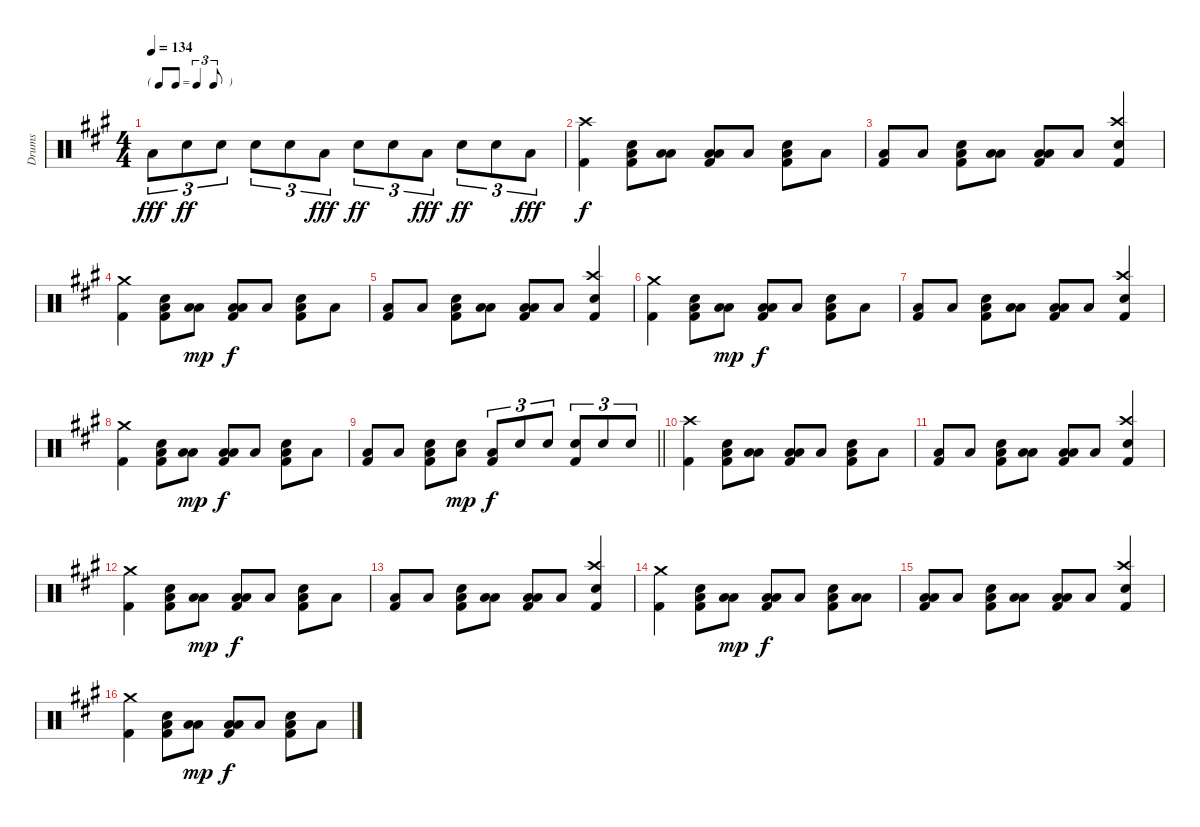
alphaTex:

\track ("Drums" "Drums") {instrument percussion}
\staff {score}
\articulation defaults
\ts (4 4)
\tf triplet8th
\tempo 134
\clef neutral
\ks f#minor "Low Tom (hit)".8{tu (3 2) dy fff} "Electric Snare (hit)".8{tu (3 2) dy ff} "Electric Snare (hit)".8{tu (3 2)} "Electric Snare (hit)".8{tu (3 2)} "Electric Snare (hit)".8{tu (3 2)} "Low Tom (hit)".8{tu (3 2) dy fff} "Electric Snare (hit)".8{tu (3 2) dy ff} "Electric Snare (hit)".8{tu (3 2)} "Low Tom (hit)".8{tu (3 2) dy fff} "Electric Snare (hit)".8{tu (3 2) dy ff} "Electric Snare (hit)".8{tu (3 2)} "Low Tom (hit)".8{tu (3 2) dy fff}
|
("Crash high (hit)" "Kick (hit) 2").4{dy f} ("Electric Snare (hit)" "Low Floor Tom (hit)" "Kick (hit) 2").8 ("Low Tom (hit)" "Low Floor Tom (hit)").8 ("Low Tom (hit)" "Low Floor Tom (hit)" "Kick (hit) 2").8 "Low Floor Tom (hit)".8 ("Electric Snare (hit)" "Low Floor Tom (hit)" "Kick (hit) 2").8 "Low Floor Tom (hit)".8 |
("Low Floor Tom (hit)" "Kick (hit) 2").8 "Low Floor Tom (hit)".8 ("Electric Snare (hit)" "Low Floor Tom (hit)" "Kick (hit) 2").8 ("Low Tom (hit)" "Low Floor Tom (hit)").8 ("Low Tom (hit)" "Low Floor Tom (hit)" "Kick (hit) 2").8 "Low Floor Tom (hit)".8 ("Crash high (hit)" "Electric Snare (hit)" "Kick (hit) 2").4 |
("Crash medium (hit)" "Kick (hit) 2").4 ("Electric Snare (hit)" "Low Floor Tom (hit)" "Kick (hit) 2").8 ("Low Tom (hit)" "Low Floor Tom (hit)").8{dy mp} ("Low Tom (hit)" "Low Floor Tom (hit)" "Kick (hit) 2").8{dy f} "Low Floor Tom (hit)".8 ("Electric Snare (hit)" "Low Floor Tom (hit)" "Kick (hit) 2").8 "Low Floor Tom (hit)".8 |
("Low Floor Tom (hit)" "Kick (hit) 2").8 "Low Floor Tom (hit)".8 ("Electric Snare (hit)" "Low Floor Tom (hit)" "Kick (hit) 2").8 ("Low Tom (hit)" "Low Floor Tom (hit)").8 ("Low Tom (hit)" "Low Floor Tom (hit)" "Kick (hit) 2").8 "Low Floor Tom (hit)".8 ("Crash high (hit)" "Electric Snare (hit)" "Kick (hit) 2").4 |
("Crash medium (hit)" "Kick (hit) 2").4 ("Electric Snare (hit)" "Low Floor Tom (hit)" "Kick (hit) 2").8 ("Low Tom (hit)" "Low Floor Tom (hit)").8{dy mp} ("Low Tom (hit)" "Low Floor Tom (hit)" "Kick (hit) 2").8{dy f} "Low Floor Tom (hit)".8 ("Electric Snare (hit)" "Low Floor Tom (hit)" "Kick (hit) 2").8 "Low Floor Tom (hit)".8 |
("Low Floor Tom (hit)" "Kick (hit) 2").8 "Low Floor Tom (hit)".8 ("Electric Snare (hit)" "Low Floor Tom (hit)" "Kick (hit) 2").8 ("Low Tom (hit)" "Low Floor Tom (hit)").8 ("Low Tom (hit)" "Low Floor Tom (hit)" "Kick (hit) 2").8 "Low Floor Tom (hit)".8 ("Crash high (hit)" "Electric Snare (hit)" "Kick (hit) 2").4 |
("Crash medium (hit)" "Kick (hit) 2").4 ("Electric Snare (hit)" "Low Floor Tom (hit)" "Kick (hit) 2").8 ("Low Tom (hit)" "Low Floor Tom (hit)").8{dy mp} ("Low Tom (hit)" "Low Floor Tom (hit)" "Kick (hit) 2").8{dy f} "Low Floor Tom (hit)".8 ("Electric Snare (hit)" "Low Floor Tom (hit)" "Kick (hit) 2").8 "Low Floor Tom (hit)".8 |
\barLineRight lightlight
("Low Floor Tom (hit)" "Kick (hit) 2").8 "Low Floor Tom (hit)".8 ("Electric Snare (hit)" "Low Floor Tom (hit)" "Kick (hit) 2").8 ("Electric Snare (hit)" "Low Floor Tom (hit)").8{dy mp} ("Low Floor Tom (hit)" "Kick (hit) 2").8{tu (3 2) dy f} "Electric Snare (hit)".8{tu (3 2)} "Electric Snare (hit)".8{tu (3 2)} ("Electric Snare (hit)" "Kick (hit) 2").8{tu (3 2)} "Electric Snare (hit)".8{tu (3 2)} "Electric Snare (hit)".8{tu (3 2)} |
("Crash high (hit)" "Kick (hit) 2").4 ("Electric Snare (hit)" "Low Floor Tom (hit)" "Kick (hit) 2").8 ("Low Tom (hit)" "Low Floor Tom (hit)").8 ("Low Tom (hit)" "Low Floor Tom (hit)" "Kick (hit) 2").8 "Low Floor Tom (hit)".8 ("Electric Snare (hit)" "Low Floor Tom (hit)" "Kick (hit) 2").8 "Low Floor Tom (hit)".8 |
("Low Floor Tom (hit)" "Kick (hit) 2").8 "Low Floor Tom (hit)".8 ("Electric Snare (hit)" "Low Floor Tom (hit)" "Kick (hit) 2").8 ("Low Tom (hit)" "Low Floor Tom (hit)").8 ("Low Tom (hit)" "Low Floor Tom (hit)" "Kick (hit) 2").8 "Low Floor Tom (hit)".8 ("Crash high (hit)" "Electric Snare (hit)" "Kick (hit) 2").4 |
("Crash medium (hit)" "Kick (hit) 2").4 ("Electric Snare (hit)" "Low Floor Tom (hit)" "Kick (hit) 2").8 ("Low Tom (hit)" "Low Floor Tom (hit)").8{dy mp} ("Low Tom (hit)" "Low Floor Tom (hit)" "Kick (hit) 2").8{dy f} "Low Floor Tom (hit)".8 ("Electric Snare (hit)" "Low Floor Tom (hit)" "Kick (hit) 2").8 "Low Floor Tom (hit)".8 |
("Low Floor Tom (hit)" "Kick (hit) 2").8 "Low Floor Tom (hit)".8 ("Electric Snare (hit)" "Low Floor Tom (hit)" "Kick (hit) 2").8 ("Low Tom (hit)" "Low Floor Tom (hit)").8 ("Low Tom (hit)" "Low Floor Tom (hit)" "Kick (hit) 2").8 "Low Floor Tom (hit)".8 ("Crash high (hit)" "Electric Snare (hit)" "Kick (hit) 2").4 |
("Crash medium (hit)" "Kick (hit) 2").4 ("Electric Snare (hit)" "Low Floor Tom (hit)" "Kick (hit) 2").8 ("Low Tom (hit)" "Low Floor Tom (hit)").8{dy mp} ("Low Tom (hit)" "Low Floor Tom (hit)" "Kick (hit) 2").8{dy f} "Low Floor Tom (hit)".8 ("Electric Snare (hit)" "Low Floor Tom (hit)" "Kick (hit) 2").8 ("Low Tom (hit)" "Low Floor Tom (hit)").8 |
("Low Tom (hit)" "Low Floor Tom (hit)" "Kick (hit) 2").8 "Low Floor Tom (hit)".8 ("Electric Snare (hit)" "Low Floor Tom (hit)" "Kick (hit) 2").8 ("Low Tom (hit)" "Low Floor Tom (hit)").8 ("Low Tom (hit)" "Low Floor Tom (hit)" "Kick (hit) 2").8 "Low Floor Tom (hit)".8 ("Crash high (hit)" "Electric Snare (hit)" "Kick (hit) 2").4 |
("Crash medium (hit)" "Kick (hit) 2").4 ("Electric Snare (hit)" "Low Floor Tom (hit)" "Kick (hit) 2").8 ("Low Tom (hit)" "Low Floor Tom (hit)").8{dy mp} ("Low Tom (hit)" "Low Floor Tom (hit)" "Kick (hit) 2").8{dy f} "Low Floor Tom (hit)".8 ("Electric Snare (hit)" "Low Floor Tom (hit)" "Kick (hit) 2").8 "Low Floor Tom (hit)".8
